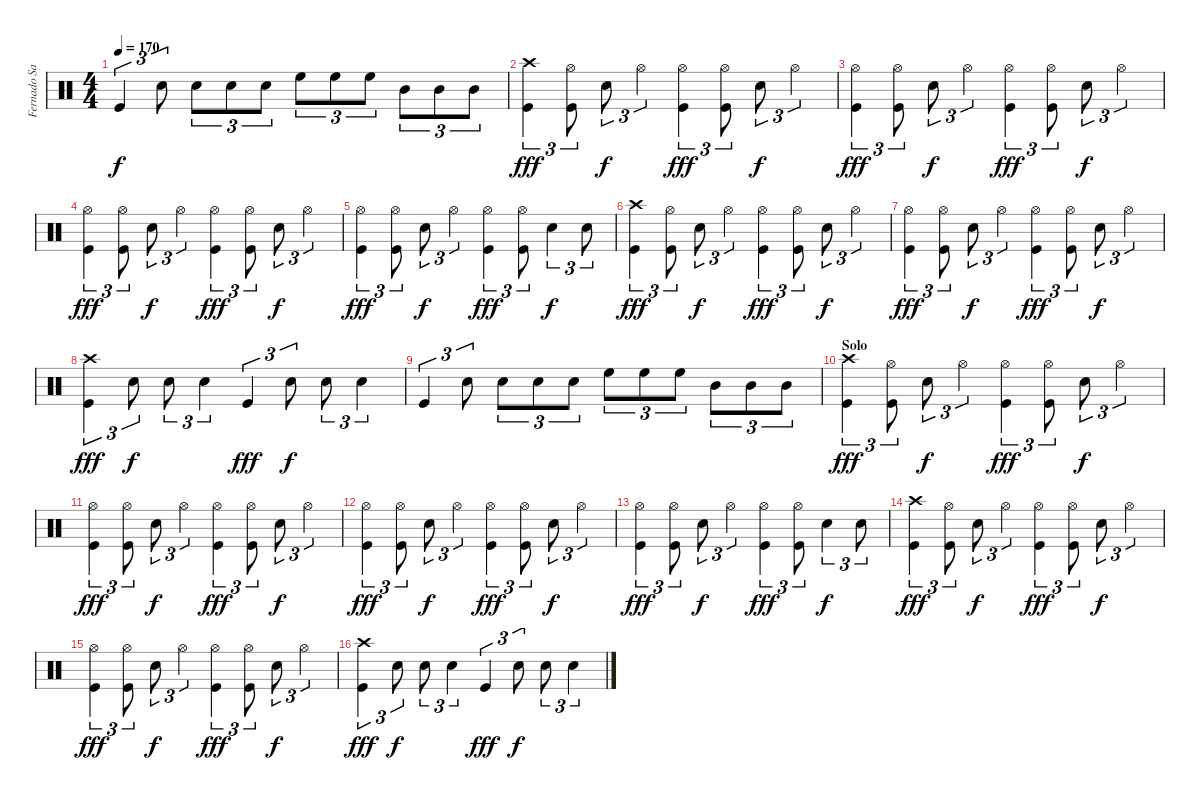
\track ("Fernado Sanchez" "Fernado Sa") {instrument percussion}
\staff {score}
\articulation defaults
\ts (4 4)
\tempo 170
\clef neutral
\ks c "Kick (hit)".4{tu (3 2) dy f} "Electric Snare (hit)".8{tu (3 2)} "Electric Snare (hit)".8{tu (3 2)} "Electric Snare (hit)".8{tu (3 2)} "Electric Snare (hit)".8{tu (3 2)} "High Floor Tom (hit)".8{tu (3 2)} "High Floor Tom (hit)".8{tu (3 2)} "High Floor Tom (hit)".8{tu (3 2)} "Mid Tom (hit)".8{tu (3 2)} "Mid Tom (hit)".8{tu (3 2)} "Mid Tom (hit)".8{tu (3 2)}
|
("Crash high (hit)" "Kick (hit)").4{tu (3 2) dy fff} ("Hi-Hat (open)" "Kick (hit)").8{tu (3 2)} "Electric Snare (hit)".8{tu (3 2) dy f} "Hi-Hat (open)".4{tu (3 2)} ("Hi-Hat (open)" "Kick (hit)").4{tu (3 2) dy fff} ("Hi-Hat (open)" "Kick (hit)").8{tu (3 2)} "Electric Snare (hit)".8{tu (3 2) dy f} "Hi-Hat (open)".4{tu (3 2)} |
("Hi-Hat (open)" "Kick (hit)").4{tu (3 2) dy fff} ("Hi-Hat (open)" "Kick (hit)").8{tu (3 2)} "Electric Snare (hit)".8{tu (3 2) dy f} "Hi-Hat (open)".4{tu (3 2)} ("Hi-Hat (open)" "Kick (hit)").4{tu (3 2) dy fff} ("Hi-Hat (open)" "Kick (hit)").8{tu (3 2)} "Electric Snare (hit)".8{tu (3 2) dy f} "Hi-Hat (open)".4{tu (3 2)} |
("Hi-Hat (open)" "Kick (hit)").4{tu (3 2) dy fff} ("Hi-Hat (open)" "Kick (hit)").8{tu (3 2)} "Electric Snare (hit)".8{tu (3 2) dy f} "Hi-Hat (open)".4{tu (3 2)} ("Hi-Hat (open)" "Kick (hit)").4{tu (3 2) dy fff} ("Hi-Hat (open)" "Kick (hit)").8{tu (3 2)} "Electric Snare (hit)".8{tu (3 2) dy f} "Hi-Hat (open)".4{tu (3 2)} |
("Hi-Hat (open)" "Kick (hit)").4{tu (3 2) dy fff} ("Hi-Hat (open)" "Kick (hit)").8{tu (3 2)} "Electric Snare (hit)".8{tu (3 2) dy f} "Hi-Hat (open)".4{tu (3 2)} ("Hi-Hat (open)" "Kick (hit)").4{tu (3 2) dy fff} ("Hi-Hat (open)" "Kick (hit)").8{tu (3 2)} "Electric Snare (hit)".4{tu (3 2) dy f} "Electric Snare (hit)".8{tu (3 2)} |
("Crash high (hit)" "Kick (hit)").4{tu (3 2) dy fff} ("Hi-Hat (open)" "Kick (hit)").8{tu (3 2)} "Electric Snare (hit)".8{tu (3 2) dy f} "Hi-Hat (open)".4{tu (3 2)} ("Hi-Hat (open)" "Kick (hit)").4{tu (3 2) dy fff} ("Hi-Hat (open)" "Kick (hit)").8{tu (3 2)} "Electric Snare (hit)".8{tu (3 2) dy f} "Hi-Hat (open)".4{tu (3 2)} |
("Hi-Hat (open)" "Kick (hit)").4{tu (3 2) dy fff} ("Hi-Hat (open)" "Kick (hit)").8{tu (3 2)} "Electric Snare (hit)".8{tu (3 2) dy f} "Hi-Hat (open)".4{tu (3 2)} ("Hi-Hat (open)" "Kick (hit)").4{tu (3 2) dy fff} ("Hi-Hat (open)" "Kick (hit)").8{tu (3 2)} "Electric Snare (hit)".8{tu (3 2) dy f} "Hi-Hat (open)".4{tu (3 2)} |
("Crash high (hit)" "Kick (hit)").4{tu (3 2) dy fff} "Electric Snare (hit)".8{tu (3 2) dy f} "Electric Snare (hit)".8{tu (3 2)} "Electric Snare (hit)".4{tu (3 2)} "Kick (hit)".4{tu (3 2) dy fff} "Electric Snare (hit)".8{tu (3 2) dy f} "Electric Snare (hit)".8{tu (3 2)} "Electric Snare (hit)".4{tu (3 2)} |
"Kick (hit)".4{tu (3 2)} "Electric Snare (hit)".8{tu (3 2)} "Electric Snare (hit)".8{tu (3 2)} "Electric Snare (hit)".8{tu (3 2)} "Electric Snare (hit)".8{tu (3 2)} "High Floor Tom (hit)".8{tu (3 2)} "High Floor Tom (hit)".8{tu (3 2)} "High Floor Tom (hit)".8{tu (3 2)} "Mid Tom (hit)".8{tu (3 2)} "Mid Tom (hit)".8{tu (3 2)} "Mid Tom (hit)".8{tu (3 2)} |
\section ("" "Solo")
("Crash high (hit)" "Kick (hit)").4{tu (3 2) dy fff} ("Hi-Hat (open)" "Kick (hit)").8{tu (3 2)} "Electric Snare (hit)".8{tu (3 2) dy f} "Hi-Hat (open)".4{tu (3 2)} ("Hi-Hat (open)" "Kick (hit)").4{tu (3 2) dy fff} ("Hi-Hat (open)" "Kick (hit)").8{tu (3 2)} "Electric Snare (hit)".8{tu (3 2) dy f} "Hi-Hat (open)".4{tu (3 2)} |
("Hi-Hat (open)" "Kick (hit)").4{tu (3 2) dy fff} ("Hi-Hat (open)" "Kick (hit)").8{tu (3 2)} "Electric Snare (hit)".8{tu (3 2) dy f} "Hi-Hat (open)".4{tu (3 2)} ("Hi-Hat (open)" "Kick (hit)").4{tu (3 2) dy fff} ("Hi-Hat (open)" "Kick (hit)").8{tu (3 2)} "Electric Snare (hit)".8{tu (3 2) dy f} "Hi-Hat (open)".4{tu (3 2)} |
("Hi-Hat (open)" "Kick (hit)").4{tu (3 2) dy fff} ("Hi-Hat (open)" "Kick (hit)").8{tu (3 2)} "Electric Snare (hit)".8{tu (3 2) dy f} "Hi-Hat (open)".4{tu (3 2)} ("Hi-Hat (open)" "Kick (hit)").4{tu (3 2) dy fff} ("Hi-Hat (open)" "Kick (hit)").8{tu (3 2)} "Electric Snare (hit)".8{tu (3 2) dy f} "Hi-Hat (open)".4{tu (3 2)} |
("Hi-Hat (open)" "Kick (hit)").4{tu (3 2) dy fff} ("Hi-Hat (open)" "Kick (hit)").8{tu (3 2)} "Electric Snare (hit)".8{tu (3 2) dy f} "Hi-Hat (open)".4{tu (3 2)} ("Hi-Hat (open)" "Kick (hit)").4{tu (3 2) dy fff} ("Hi-Hat (open)" "Kick (hit)").8{tu (3 2)} "Electric Snare (hit)".4{tu (3 2) dy f} "Electric Snare (hit)".8{tu (3 2)} |
("Crash high (hit)" "Kick (hit)").4{tu (3 2) dy fff} ("Hi-Hat (open)" "Kick (hit)").8{tu (3 2)} "Electric Snare (hit)".8{tu (3 2) dy f} "Hi-Hat (open)".4{tu (3 2)} ("Hi-Hat (open)" "Kick (hit)").4{tu (3 2) dy fff} ("Hi-Hat (open)" "Kick (hit)").8{tu (3 2)} "Electric Snare (hit)".8{tu (3 2) dy f} "Hi-Hat (open)".4{tu (3 2)} |
("Hi-Hat (open)" "Kick (hit)").4{tu (3 2) dy fff} ("Hi-Hat (open)" "Kick (hit)").8{tu (3 2)} "Electric Snare (hit)".8{tu (3 2) dy f} "Hi-Hat (open)".4{tu (3 2)} ("Hi-Hat (open)" "Kick (hit)").4{tu (3 2) dy fff} ("Hi-Hat (open)" "Kick (hit)").8{tu (3 2)} "Electric Snare (hit)".8{tu (3 2) dy f} "Hi-Hat (open)".4{tu (3 2)} |
("Crash high (hit)" "Kick (hit)").4{tu (3 2) dy fff} "Electric Snare (hit)".8{tu (3 2) dy f} "Electric Snare (hit)".8{tu (3 2)} "Electric Snare (hit)".4{tu (3 2)} "Kick (hit)".4{tu (3 2) dy fff} "Electric Snare (hit)".8{tu (3 2) dy f} "Electric Snare (hit)".8{tu (3 2)} "Electric Snare (hit)".4{tu (3 2)}
